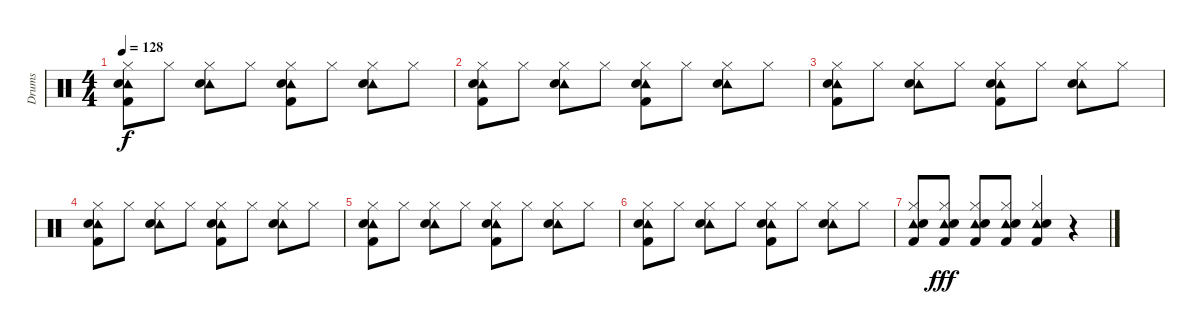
\track ("Drums" "Drums") {instrument percussion}
\staff {score}
\articulation defaults
\ts (4 4)
\tempo 128
\clef neutral
\ks c
("Tambourine (hit)" "Hi-Hat (closed)" "Snare (hit) 2" "Kick (hit) 2").8{dy f} "Hi-Hat (closed)".8 ("Tambourine (hit)" "Hi-Hat (closed)" "Snare (hit) 2").8 "Hi-Hat (closed)".8 ("Tambourine (hit)" "Hi-Hat (closed)" "Snare (hit) 2" "Kick (hit) 2").8 "Hi-Hat (closed)".8 ("Tambourine (hit)" "Hi-Hat (closed)" "Snare (hit) 2").8 "Hi-Hat (closed)".8 |
("Tambourine (hit)" "Hi-Hat (closed)" "Snare (hit) 2" "Kick (hit) 2").8 "Hi-Hat (closed)".8 ("Tambourine (hit)" "Hi-Hat (closed)" "Snare (hit) 2").8 "Hi-Hat (closed)".8 ("Tambourine (hit)" "Hi-Hat (closed)" "Snare (hit) 2" "Kick (hit) 2").8 "Hi-Hat (closed)".8 ("Tambourine (hit)" "Hi-Hat (closed)" "Snare (hit) 2").8 "Hi-Hat (closed)".8 |
("Tambourine (hit)" "Hi-Hat (closed)" "Snare (hit) 2" "Kick (hit) 2").8 "Hi-Hat (closed)".8 ("Tambourine (hit)" "Hi-Hat (closed)" "Snare (hit) 2").8 "Hi-Hat (closed)".8 ("Tambourine (hit)" "Hi-Hat (closed)" "Snare (hit) 2" "Kick (hit) 2").8 "Hi-Hat (closed)".8 ("Tambourine (hit)" "Hi-Hat (closed)" "Snare (hit) 2").8 "Hi-Hat (closed)".8 |
("Tambourine (hit)" "Hi-Hat (closed)" "Snare (hit) 2" "Kick (hit) 2").8 "Hi-Hat (closed)".8 ("Tambourine (hit)" "Hi-Hat (closed)" "Snare (hit) 2").8 "Hi-Hat (closed)".8 ("Tambourine (hit)" "Hi-Hat (closed)" "Snare (hit) 2" "Kick (hit) 2").8 "Hi-Hat (closed)".8 ("Tambourine (hit)" "Hi-Hat (closed)" "Snare (hit) 2").8 "Hi-Hat (closed)".8 |
("Tambourine (hit)" "Hi-Hat (closed)" "Snare (hit) 2" "Kick (hit) 2").8 "Hi-Hat (closed)".8 ("Tambourine (hit)" "Hi-Hat (closed)" "Snare (hit) 2").8 "Hi-Hat (closed)".8 ("Tambourine (hit)" "Hi-Hat (closed)" "Snare (hit) 2" "Kick (hit) 2").8 "Hi-Hat (closed)".8 ("Tambourine (hit)" "Hi-Hat (closed)" "Snare (hit) 2").8 "Hi-Hat (closed)".8 |
("Tambourine (hit)" "Hi-Hat (closed)" "Snare (hit) 2" "Kick (hit) 2").8 "Hi-Hat (closed)".8 ("Tambourine (hit)" "Hi-Hat (closed)" "Snare (hit) 2").8 "Hi-Hat (closed)".8 ("Tambourine (hit)" "Hi-Hat (closed)" "Snare (hit) 2" "Kick (hit) 2").8 "Hi-Hat (closed)".8 ("Tambourine (hit)" "Hi-Hat (closed)" "Snare (hit) 2").8 "Hi-Hat (closed)".8 |
("Tambourine (hit)" "Hi-Hat (closed)" "Snare (hit) 2" "Kick (hit) 2").8 ("Tambourine (hit)" "Hi-Hat (closed)" "Snare (hit) 2" "Kick (hit) 2").8{dy fff} ("Tambourine (hit)" "Hi-Hat (closed)" "Snare (hit) 2" "Kick (hit) 2").8 ("Tambourine (hit)" "Hi-Hat (closed)" "Snare (hit) 2" "Kick (hit) 2").8 ("Tambourine (hit)" "Hi-Hat (closed)" "Snare (hit) 2" "Kick (hit) 2").4 r.4
